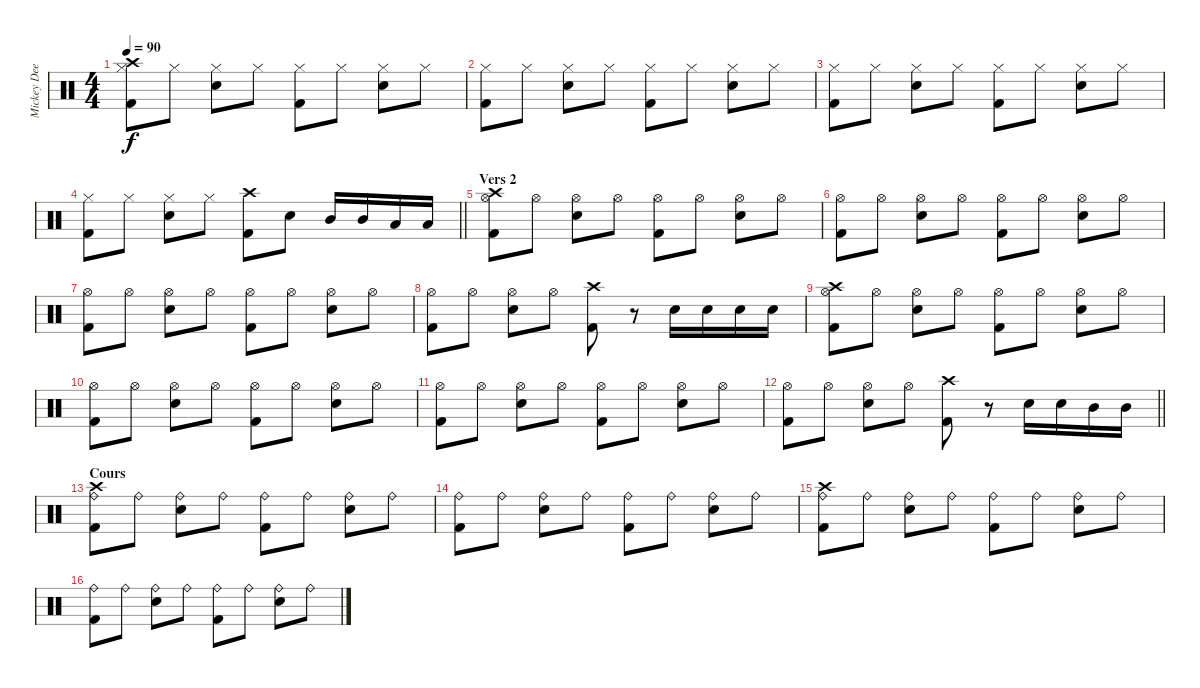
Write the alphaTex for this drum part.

\track ("Mickey Dee" "Mickey Dee") {instrument percussion}
\staff {score}
\articulation defaults
\ts (4 4)
\tempo 90
\clef neutral
\ks c
("Crash high (hit)" "Hi-Hat (closed)" "Kick (hit) 2").8{dy f} "Hi-Hat (closed)".8 ("Hi-Hat (closed)" "Snare (hit) 2").8 "Hi-Hat (closed)".8 ("Hi-Hat (closed)" "Kick (hit) 2").8 "Hi-Hat (closed)".8 ("Hi-Hat (closed)" "Snare (hit) 2").8 "Hi-Hat (closed)".8 |
("Hi-Hat (closed)" "Kick (hit) 2").8 "Hi-Hat (closed)".8 ("Hi-Hat (closed)" "Snare (hit) 2").8 "Hi-Hat (closed)".8 ("Hi-Hat (closed)" "Kick (hit) 2").8 "Hi-Hat (closed)".8 ("Hi-Hat (closed)" "Snare (hit) 2").8 "Hi-Hat (closed)".8 |
("Hi-Hat (closed)" "Kick (hit) 2").8 "Hi-Hat (closed)".8 ("Hi-Hat (closed)" "Snare (hit) 2").8 "Hi-Hat (closed)".8 ("Hi-Hat (closed)" "Kick (hit) 2").8 "Hi-Hat (closed)".8 ("Hi-Hat (closed)" "Snare (hit) 2").8 "Hi-Hat (closed)".8 |
\barLineRight lightlight
("Hi-Hat (closed)" "Kick (hit) 2").8 "Hi-Hat (closed)".8 ("Hi-Hat (closed)" "Snare (hit) 2").8 "Hi-Hat (closed)".8 ("Crash high (hit)" "Kick (hit) 2").8 "Snare (hit) 2".8 "Mid Tom (hit)".16 "Mid Tom (hit)".16 "Low Tom (hit)".16 "Low Tom (hit)".16 |
\section ("" "Vers 2")
("Crash high (hit)" "Hi-Hat (open)" "Kick (hit) 2").8 "Hi-Hat (open)".8 ("Hi-Hat (open)" "Snare (hit) 2").8 "Hi-Hat (open)".8 ("Hi-Hat (open)" "Kick (hit) 2").8 "Hi-Hat (open)".8 ("Hi-Hat (open)" "Snare (hit) 2").8 "Hi-Hat (open)".8 |
("Hi-Hat (open)" "Kick (hit) 2").8 "Hi-Hat (open)".8 ("Hi-Hat (open)" "Snare (hit) 2").8 "Hi-Hat (open)".8 ("Hi-Hat (open)" "Kick (hit) 2").8 "Hi-Hat (open)".8 ("Hi-Hat (open)" "Snare (hit) 2").8 "Hi-Hat (open)".8 |
("Hi-Hat (open)" "Kick (hit) 2").8 "Hi-Hat (open)".8 ("Hi-Hat (open)" "Snare (hit) 2").8 "Hi-Hat (open)".8 ("Hi-Hat (open)" "Kick (hit) 2").8 "Hi-Hat (open)".8 ("Hi-Hat (open)" "Snare (hit) 2").8 "Hi-Hat (open)".8 |
("Hi-Hat (open)" "Kick (hit) 2").8 "Hi-Hat (open)".8 ("Hi-Hat (open)" "Snare (hit) 2").8 "Hi-Hat (open)".8 ("Crash high (hit)" "Kick (hit) 2").8 r.8 "Snare (hit) 2".16 "Snare (hit) 2".16 "Snare (hit) 2".16 "Snare (hit) 2".16 |
("Crash high (hit)" "Hi-Hat (open)" "Kick (hit) 2").8 "Hi-Hat (open)".8 ("Hi-Hat (open)" "Snare (hit) 2").8 "Hi-Hat (open)".8 ("Hi-Hat (open)" "Kick (hit) 2").8 "Hi-Hat (open)".8 ("Hi-Hat (open)" "Snare (hit) 2").8 "Hi-Hat (open)".8 |
("Hi-Hat (open)" "Kick (hit) 2").8 "Hi-Hat (open)".8 ("Hi-Hat (open)" "Snare (hit) 2").8 "Hi-Hat (open)".8 ("Hi-Hat (open)" "Kick (hit) 2").8 "Hi-Hat (open)".8 ("Hi-Hat (open)" "Snare (hit) 2").8 "Hi-Hat (open)".8 |
("Hi-Hat (open)" "Kick (hit) 2").8 "Hi-Hat (open)".8 ("Hi-Hat (open)" "Snare (hit) 2").8 "Hi-Hat (open)".8 ("Hi-Hat (open)" "Kick (hit) 2").8 "Hi-Hat (open)".8 ("Hi-Hat (open)" "Snare (hit) 2").8 "Hi-Hat (open)".8 |
\barLineRight lightlight
("Hi-Hat (open)" "Kick (hit) 2").8 "Hi-Hat (open)".8 ("Hi-Hat (open)" "Snare (hit) 2").8 "Hi-Hat (open)".8 ("Crash high (hit)" "Kick (hit) 2").8 r.8 "Snare (hit) 2".16 "Snare (hit) 2".16 "Mid Tom (hit)".16 "Mid Tom (hit)".16 |
\section ("" "Cours")
("Crash high (hit)" "Ride (bell)" "Kick (hit) 2").8 "Ride (bell)".8 ("Ride (bell)" "Snare (hit) 2").8 "Ride (bell)".8 ("Ride (bell)" "Kick (hit) 2").8 "Ride (bell)".8 ("Ride (bell)" "Snare (hit) 2").8 "Ride (bell)".8 |
("Ride (bell)" "Kick (hit) 2").8 "Ride (bell)".8 ("Ride (bell)" "Snare (hit) 2").8 "Ride (bell)".8 ("Ride (bell)" "Kick (hit) 2").8 "Ride (bell)".8 ("Ride (bell)" "Snare (hit) 2").8 "Ride (bell)".8 |
("Crash high (hit)" "Ride (bell)" "Kick (hit) 2").8 "Ride (bell)".8 ("Ride (bell)" "Snare (hit) 2").8 "Ride (bell)".8 ("Ride (bell)" "Kick (hit) 2").8 "Ride (bell)".8 ("Ride (bell)" "Snare (hit) 2").8 "Ride (bell)".8 |
("Ride (bell)" "Kick (hit) 2").8 "Ride (bell)".8 ("Ride (bell)" "Snare (hit) 2").8 "Ride (bell)".8 ("Ride (bell)" "Kick (hit) 2").8 "Ride (bell)".8 ("Ride (bell)" "Snare (hit) 2").8 "Ride (bell)".8
